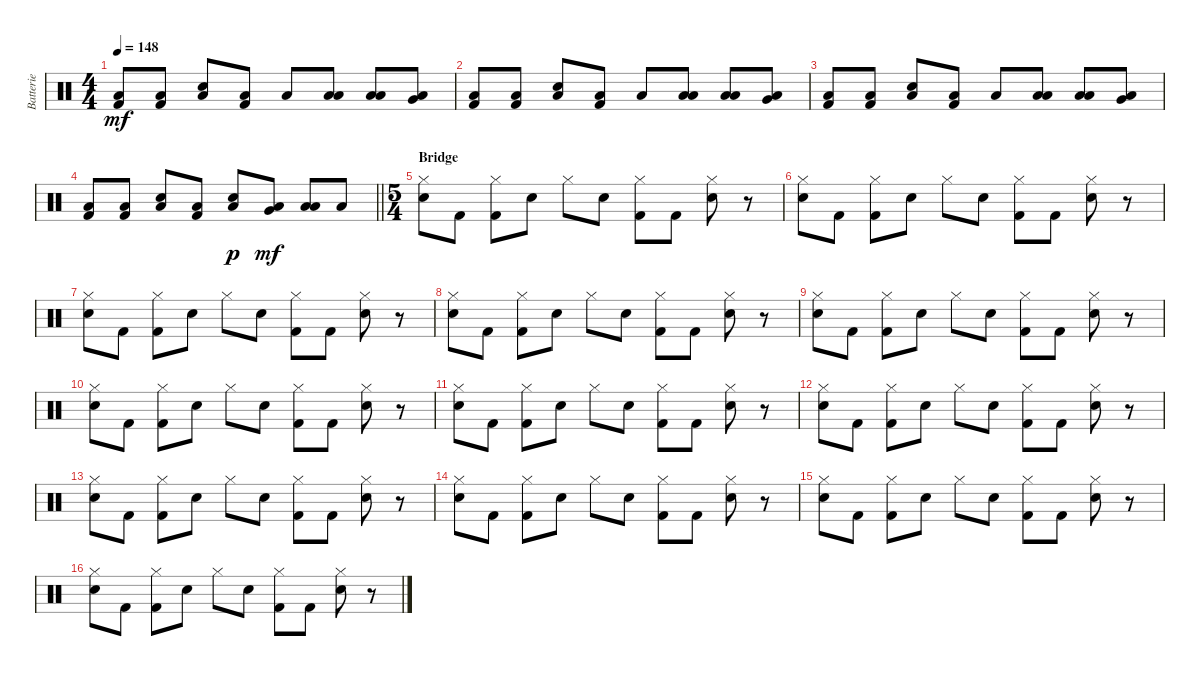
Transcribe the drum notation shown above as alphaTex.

\track ("Batterie" "Batterie") {instrument percussion}
\staff {score}
\articulation defaults
\ts (4 4)
\tempo 148
\clef neutral
\ks c
("Low Floor Tom (hit)" "Kick (hit) 2").8{dy mf} ("Low Floor Tom (hit)" "Kick (hit) 2").8 ("Low Floor Tom (hit)" "Snare (hit) 2").8 ("Low Floor Tom (hit)" "Kick (hit) 2").8 "Low Floor Tom (hit)".8 ("Low Floor Tom (hit)" "Low Tom (hit)").8 ("Low Floor Tom (hit)" "Low Floor Tom (hit)").8 ("Low Floor Tom (hit)" "Very Low Tom (hit)").8 |
("Low Floor Tom (hit)" "Kick (hit) 2").8 ("Low Floor Tom (hit)" "Kick (hit) 2").8 ("Low Floor Tom (hit)" "Snare (hit) 2").8 ("Low Floor Tom (hit)" "Kick (hit) 2").8 "Low Floor Tom (hit)".8 ("Low Floor Tom (hit)" "Low Tom (hit)").8 ("Low Floor Tom (hit)" "Low Floor Tom (hit)").8 ("Low Floor Tom (hit)" "Very Low Tom (hit)").8 |
("Low Floor Tom (hit)" "Kick (hit) 2").8 ("Low Floor Tom (hit)" "Kick (hit) 2").8 ("Low Floor Tom (hit)" "Snare (hit) 2").8 ("Low Floor Tom (hit)" "Kick (hit) 2").8 "Low Floor Tom (hit)".8 ("Low Floor Tom (hit)" "Low Tom (hit)").8 ("Low Floor Tom (hit)" "Low Floor Tom (hit)").8 ("Low Floor Tom (hit)" "Very Low Tom (hit)").8 |
\barLineRight lightlight
("Low Floor Tom (hit)" "Kick (hit) 2").8 ("Low Floor Tom (hit)" "Kick (hit) 2").8 ("Low Floor Tom (hit)" "Snare (hit) 2").8 ("Low Floor Tom (hit)" "Kick (hit) 2").8 ("Low Floor Tom (hit)" "Snare (hit) 2").8{dy p} ("Low Floor Tom (hit)" "Very Low Tom (hit)").8{dy mf} ("Low Floor Tom (hit)" "Low Floor Tom (hit)").8 "Low Floor Tom (hit)".8 |
\ts (5 4)
\section ("" "Bridge")
("Hi-Hat (closed)" "Snare (hit) 2").8 "Kick (hit) 2".8 ("Hi-Hat (closed)" "Kick (hit) 2").8 "Snare (hit) 2".8 "Hi-Hat (closed)".8 "Snare (hit) 2".8 ("Hi-Hat (closed)" "Kick (hit) 2").8 "Kick (hit) 2".8 ("Hi-Hat (closed)" "Snare (hit) 2").8 r.8 |
("Hi-Hat (closed)" "Snare (hit) 2").8 "Kick (hit) 2".8 ("Hi-Hat (closed)" "Kick (hit) 2").8 "Snare (hit) 2".8 "Hi-Hat (closed)".8 "Snare (hit) 2".8 ("Hi-Hat (closed)" "Kick (hit) 2").8 "Kick (hit) 2".8 ("Hi-Hat (closed)" "Snare (hit) 2").8 r.8 |
("Hi-Hat (closed)" "Snare (hit) 2").8 "Kick (hit) 2".8 ("Hi-Hat (closed)" "Kick (hit) 2").8 "Snare (hit) 2".8 "Hi-Hat (closed)".8 "Snare (hit) 2".8 ("Hi-Hat (closed)" "Kick (hit) 2").8 "Kick (hit) 2".8 ("Hi-Hat (closed)" "Snare (hit) 2").8 r.8 |
("Hi-Hat (closed)" "Snare (hit) 2").8 "Kick (hit) 2".8 ("Hi-Hat (closed)" "Kick (hit) 2").8 "Snare (hit) 2".8 "Hi-Hat (closed)".8 "Snare (hit) 2".8 ("Hi-Hat (closed)" "Kick (hit) 2").8 "Kick (hit) 2".8 ("Hi-Hat (closed)" "Snare (hit) 2").8 r.8 |
("Hi-Hat (closed)" "Snare (hit) 2").8 "Kick (hit) 2".8 ("Hi-Hat (closed)" "Kick (hit) 2").8 "Snare (hit) 2".8 "Hi-Hat (closed)".8 "Snare (hit) 2".8 ("Hi-Hat (closed)" "Kick (hit) 2").8 "Kick (hit) 2".8 ("Hi-Hat (closed)" "Snare (hit) 2").8 r.8 |
("Hi-Hat (closed)" "Snare (hit) 2").8 "Kick (hit) 2".8 ("Hi-Hat (closed)" "Kick (hit) 2").8 "Snare (hit) 2".8 "Hi-Hat (closed)".8 "Snare (hit) 2".8 ("Hi-Hat (closed)" "Kick (hit) 2").8 "Kick (hit) 2".8 ("Hi-Hat (closed)" "Snare (hit) 2").8 r.8 |
("Hi-Hat (closed)" "Snare (hit) 2").8 "Kick (hit) 2".8 ("Hi-Hat (closed)" "Kick (hit) 2").8 "Snare (hit) 2".8 "Hi-Hat (closed)".8 "Snare (hit) 2".8 ("Hi-Hat (closed)" "Kick (hit) 2").8 "Kick (hit) 2".8 ("Hi-Hat (closed)" "Snare (hit) 2").8 r.8 |
("Hi-Hat (closed)" "Snare (hit) 2").8 "Kick (hit) 2".8 ("Hi-Hat (closed)" "Kick (hit) 2").8 "Snare (hit) 2".8 "Hi-Hat (closed)".8 "Snare (hit) 2".8 ("Hi-Hat (closed)" "Kick (hit) 2").8 "Kick (hit) 2".8 ("Hi-Hat (closed)" "Snare (hit) 2").8 r.8 |
("Hi-Hat (closed)" "Snare (hit) 2").8 "Kick (hit) 2".8 ("Hi-Hat (closed)" "Kick (hit) 2").8 "Snare (hit) 2".8 "Hi-Hat (closed)".8 "Snare (hit) 2".8 ("Hi-Hat (closed)" "Kick (hit) 2").8 "Kick (hit) 2".8 ("Hi-Hat (closed)" "Snare (hit) 2").8 r.8 |
("Hi-Hat (closed)" "Snare (hit) 2").8 "Kick (hit) 2".8 ("Hi-Hat (closed)" "Kick (hit) 2").8 "Snare (hit) 2".8 "Hi-Hat (closed)".8 "Snare (hit) 2".8 ("Hi-Hat (closed)" "Kick (hit) 2").8 "Kick (hit) 2".8 ("Hi-Hat (closed)" "Snare (hit) 2").8 r.8 |
("Hi-Hat (closed)" "Snare (hit) 2").8 "Kick (hit) 2".8 ("Hi-Hat (closed)" "Kick (hit) 2").8 "Snare (hit) 2".8 "Hi-Hat (closed)".8 "Snare (hit) 2".8 ("Hi-Hat (closed)" "Kick (hit) 2").8 "Kick (hit) 2".8 ("Hi-Hat (closed)" "Snare (hit) 2").8 r.8 |
("Hi-Hat (closed)" "Snare (hit) 2").8 "Kick (hit) 2".8 ("Hi-Hat (closed)" "Kick (hit) 2").8 "Snare (hit) 2".8 "Hi-Hat (closed)".8 "Snare (hit) 2".8 ("Hi-Hat (closed)" "Kick (hit) 2").8 "Kick (hit) 2".8 ("Hi-Hat (closed)" "Snare (hit) 2").8 r.8
